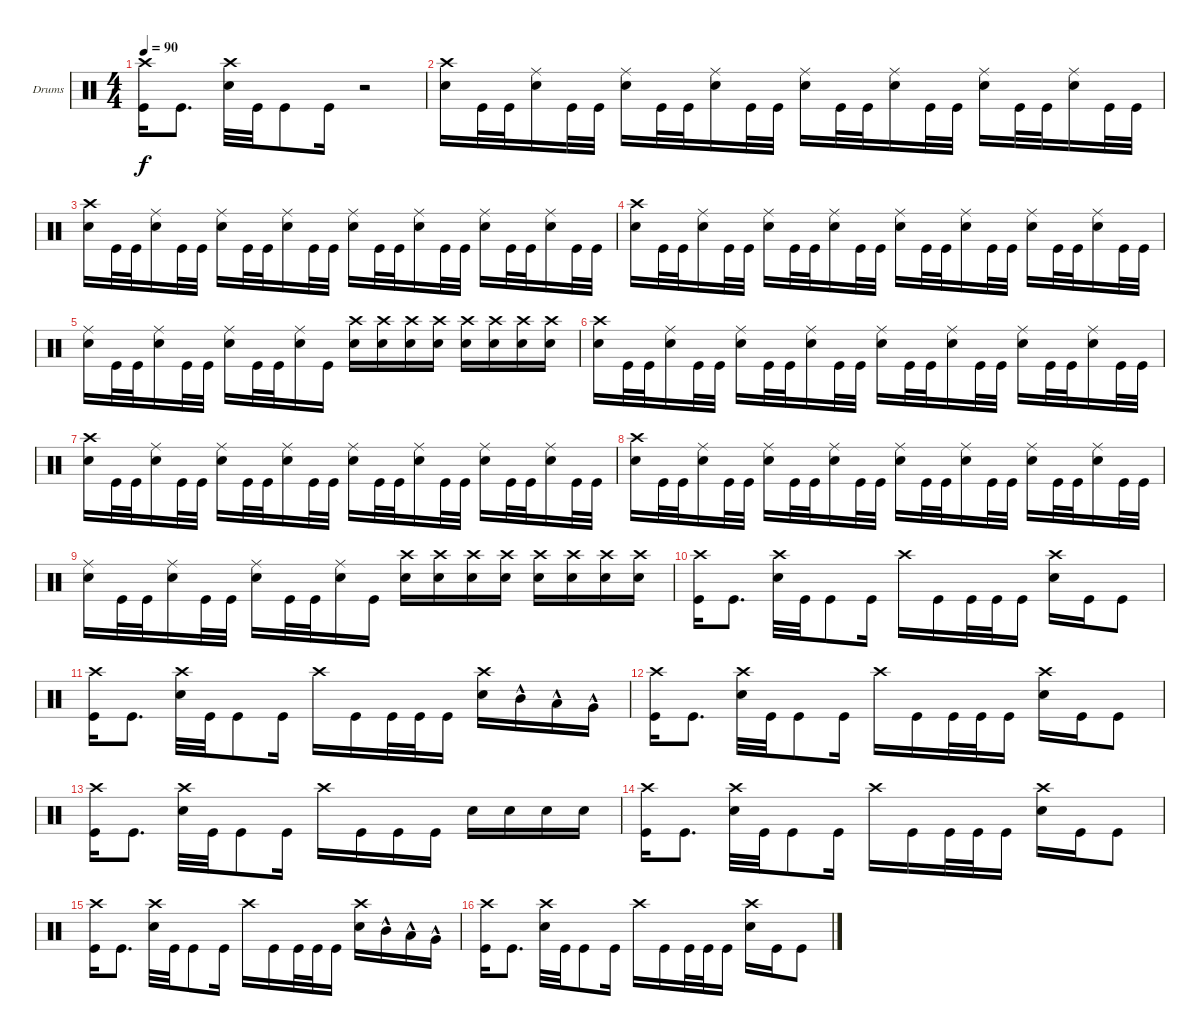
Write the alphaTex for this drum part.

\bracketExtendMode groupsimilarinstruments
\firstSystemTrackNameOrientation horizontal
\otherSystemsTrackNameOrientation horizontal
\track ("Emile Bardou" "Drums") {instrument percussion}
\staff {score}
\articulation defaults
\ts (4 4)
\tempo 90
\clef neutral
\scale
0.333333
\ks c
("Kick (hit)" "Crash high (hit)").16{dy f} "Kick (hit)".8{d} ("Snare (hit) 2" "Crash high (hit)").32 "Kick (hit)".32 "Kick (hit)".8 "Kick (hit)".16 r.2 |
\scale
0.333333 ("Crash high (hit)" "Snare (hit) 2").16 "Kick (hit)".32 "Kick (hit)".32 ("Snare (hit) 2" "Ride (middle)").16 "Kick (hit)".32 "Kick (hit)".32 ("Snare (hit) 2" "Ride (middle)").16 "Kick (hit)".32 "Kick (hit)".32 ("Snare (hit) 2" "Ride (middle)").16 "Kick (hit)".32 "Kick (hit)".32 ("Snare (hit) 2" "Ride (middle)").16 "Kick (hit)".32 "Kick (hit)".32 ("Snare (hit) 2" "Ride (middle)").16 "Kick (hit)".32 "Kick (hit)".32 ("Snare (hit) 2" "Ride (middle)").16 "Kick (hit)".32 "Kick (hit)".32 ("Snare (hit) 2" "Ride (middle)").16 "Kick (hit)".32 "Kick (hit)".32 |
\scale
0.333333 ("Crash high (hit)" "Snare (hit) 2").16 "Kick (hit)".32 "Kick (hit)".32 ("Snare (hit) 2" "Ride (middle)").16 "Kick (hit)".32 "Kick (hit)".32 ("Snare (hit) 2" "Ride (middle)").16 "Kick (hit)".32 "Kick (hit)".32 ("Snare (hit) 2" "Ride (middle)").16 "Kick (hit)".32 "Kick (hit)".32 ("Snare (hit) 2" "Ride (middle)").16 "Kick (hit)".32 "Kick (hit)".32 ("Snare (hit) 2" "Ride (middle)").16 "Kick (hit)".32 "Kick (hit)".32 ("Snare (hit) 2" "Ride (middle)").16 "Kick (hit)".32 "Kick (hit)".32 ("Snare (hit) 2" "Ride (middle)").16 "Kick (hit)".32 "Kick (hit)".32 |
\scale
0.333333 ("Crash high (hit)" "Snare (hit) 2").16 "Kick (hit)".32 "Kick (hit)".32 ("Snare (hit) 2" "Ride (middle)").16 "Kick (hit)".32 "Kick (hit)".32 ("Snare (hit) 2" "Ride (middle)").16 "Kick (hit)".32 "Kick (hit)".32 ("Snare (hit) 2" "Ride (middle)").16 "Kick (hit)".32 "Kick (hit)".32 ("Snare (hit) 2" "Ride (middle)").16 "Kick (hit)".32 "Kick (hit)".32 ("Snare (hit) 2" "Ride (middle)").16 "Kick (hit)".32 "Kick (hit)".32 ("Snare (hit) 2" "Ride (middle)").16 "Kick (hit)".32 "Kick (hit)".32 ("Snare (hit) 2" "Ride (middle)").16 "Kick (hit)".32 "Kick (hit)".32 |
\scale
0.333333 ("Snare (hit) 2" "Ride (middle)").16 "Kick (hit)".32 "Kick (hit)".32 ("Snare (hit) 2" "Ride (middle)").16 "Kick (hit)".32 "Kick (hit)".32 ("Snare (hit) 2" "Ride (middle)").16 "Kick (hit)".32 "Kick (hit)".32 ("Snare (hit) 2" "Ride (middle)").16 "Kick (hit)".16 ("Snare (hit) 2" "Crash high (hit)").16 ("Snare (hit) 2" "Crash high (hit)").16 ("Snare (hit) 2" "Crash high (hit)").16 ("Snare (hit) 2" "Crash high (hit)").16 ("Snare (hit) 2" "Crash high (hit)").16 ("Snare (hit) 2" "Crash high (hit)").16 ("Snare (hit) 2" "Crash high (hit)").16 ("Snare (hit) 2" "Crash high (hit)").16 |
\scale
0.333333 ("Crash high (hit)" "Snare (hit) 2").16 "Kick (hit)".32 "Kick (hit)".32 ("Snare (hit) 2" "Ride (middle)").16 "Kick (hit)".32 "Kick (hit)".32 ("Snare (hit) 2" "Ride (middle)").16 "Kick (hit)".32 "Kick (hit)".32 ("Snare (hit) 2" "Ride (middle)").16 "Kick (hit)".32 "Kick (hit)".32 ("Snare (hit) 2" "Ride (middle)").16 "Kick (hit)".32 "Kick (hit)".32 ("Snare (hit) 2" "Ride (middle)").16 "Kick (hit)".32 "Kick (hit)".32 ("Snare (hit) 2" "Ride (middle)").16 "Kick (hit)".32 "Kick (hit)".32 ("Snare (hit) 2" "Ride (middle)").16 "Kick (hit)".32 "Kick (hit)".32 |
\scale
0.333333 ("Crash high (hit)" "Snare (hit) 2").16 "Kick (hit)".32 "Kick (hit)".32 ("Snare (hit) 2" "Ride (middle)").16 "Kick (hit)".32 "Kick (hit)".32 ("Snare (hit) 2" "Ride (middle)").16 "Kick (hit)".32 "Kick (hit)".32 ("Snare (hit) 2" "Ride (middle)").16 "Kick (hit)".32 "Kick (hit)".32 ("Snare (hit) 2" "Ride (middle)").16 "Kick (hit)".32 "Kick (hit)".32 ("Snare (hit) 2" "Ride (middle)").16 "Kick (hit)".32 "Kick (hit)".32 ("Snare (hit) 2" "Ride (middle)").16 "Kick (hit)".32 "Kick (hit)".32 ("Snare (hit) 2" "Ride (middle)").16 "Kick (hit)".32 "Kick (hit)".32 |
\scale
0.333333 ("Crash high (hit)" "Snare (hit) 2").16 "Kick (hit)".32 "Kick (hit)".32 ("Snare (hit) 2" "Ride (middle)").16 "Kick (hit)".32 "Kick (hit)".32 ("Snare (hit) 2" "Ride (middle)").16 "Kick (hit)".32 "Kick (hit)".32 ("Snare (hit) 2" "Ride (middle)").16 "Kick (hit)".32 "Kick (hit)".32 ("Snare (hit) 2" "Ride (middle)").16 "Kick (hit)".32 "Kick (hit)".32 ("Snare (hit) 2" "Ride (middle)").16 "Kick (hit)".32 "Kick (hit)".32 ("Snare (hit) 2" "Ride (middle)").16 "Kick (hit)".32 "Kick (hit)".32 ("Snare (hit) 2" "Ride (middle)").16 "Kick (hit)".32 "Kick (hit)".32 |
\scale
0.333333 ("Snare (hit) 2" "Ride (middle)").16 "Kick (hit)".32 "Kick (hit)".32 ("Snare (hit) 2" "Ride (middle)").16 "Kick (hit)".32 "Kick (hit)".32 ("Snare (hit) 2" "Ride (middle)").16 "Kick (hit)".32 "Kick (hit)".32 ("Snare (hit) 2" "Ride (middle)").16 "Kick (hit)".16 ("Snare (hit) 2" "Crash high (hit)").16 ("Snare (hit) 2" "Crash high (hit)").16 ("Snare (hit) 2" "Crash high (hit)").16 ("Snare (hit) 2" "Crash high (hit)").16 ("Snare (hit) 2" "Crash high (hit)").16 ("Snare (hit) 2" "Crash high (hit)").16 ("Snare (hit) 2" "Crash high (hit)").16 ("Snare (hit) 2" "Crash high (hit)").16 |
\scale
0.333333 ("Kick (hit)" "Crash high (hit)").16 "Kick (hit)".8{d} ("Snare (hit) 2" "Crash high (hit)").32 "Kick (hit)".32 "Kick (hit)".8 "Kick (hit)".16 "Crash high (hit)".16 "Kick (hit)".16 "Kick (hit)".32 "Kick (hit)".32 "Kick (hit)".16 ("Snare (hit) 2" "Crash high (hit)").16 "Kick (hit)".16 "Kick (hit)".8 |
\scale
0.333333 ("Kick (hit)" "Crash high (hit)").16 "Kick (hit)".8{d} ("Snare (hit) 2" "Crash high (hit)").32 "Kick (hit)".32 "Kick (hit)".8 "Kick (hit)".16 "Crash high (hit)".16 "Kick (hit)".16 "Kick (hit)".32 "Kick (hit)".32 "Kick (hit)".16 ("Snare (hit) 2" "Crash high (hit)").16 "Mid Tom (hit)"{hac}.16 "Low Tom (hit)"{hac}.16 "Very Low Tom (hit)"{hac}.16 |
\scale
0.333333 ("Kick (hit)" "Crash high (hit)").16 "Kick (hit)".8{d} ("Snare (hit) 2" "Crash high (hit)").32 "Kick (hit)".32 "Kick (hit)".8 "Kick (hit)".16 "Crash high (hit)".16 "Kick (hit)".16 "Kick (hit)".32 "Kick (hit)".32 "Kick (hit)".16 ("Snare (hit) 2" "Crash high (hit)").16 "Kick (hit)".16 "Kick (hit)".8 |
\scale
0.333333 ("Kick (hit)" "Crash high (hit)").16 "Kick (hit)".8{d} ("Snare (hit) 2" "Crash high (hit)").32 "Kick (hit)".32 "Kick (hit)".8 "Kick (hit)".16 "Crash high (hit)".16 "Kick (hit)".16 "Kick (hit)".16 "Kick (hit)".16 "Snare (hit) 2".16 "Snare (hit) 2".16 "Snare (hit) 2".16 "Snare (hit) 2".16 |
\scale
0.333333 ("Kick (hit)" "Crash high (hit)").16 "Kick (hit)".8{d} ("Snare (hit) 2" "Crash high (hit)").32 "Kick (hit)".32 "Kick (hit)".8 "Kick (hit)".16 "Crash high (hit)".16 "Kick (hit)".16 "Kick (hit)".32 "Kick (hit)".32 "Kick (hit)".16 ("Snare (hit) 2" "Crash high (hit)").16 "Kick (hit)".16 "Kick (hit)".8 |
\scale
0.333333 ("Kick (hit)" "Crash high (hit)").16 "Kick (hit)".8{d} ("Snare (hit) 2" "Crash high (hit)").32 "Kick (hit)".32 "Kick (hit)".8 "Kick (hit)".16 "Crash high (hit)".16 "Kick (hit)".16 "Kick (hit)".32 "Kick (hit)".32 "Kick (hit)".16 ("Snare (hit) 2" "Crash high (hit)").16 "Mid Tom (hit)"{hac}.16 "Low Tom (hit)"{hac}.16 "Very Low Tom (hit)"{hac}.16 |
\scale
0.333333 ("Kick (hit)" "Crash high (hit)").16 "Kick (hit)".8{d} ("Snare (hit) 2" "Crash high (hit)").32 "Kick (hit)".32 "Kick (hit)".8 "Kick (hit)".16 "Crash high (hit)".16 "Kick (hit)".16 "Kick (hit)".32 "Kick (hit)".32 "Kick (hit)".16 ("Snare (hit) 2" "Crash high (hit)").16 "Kick (hit)".16 "Kick (hit)".8
